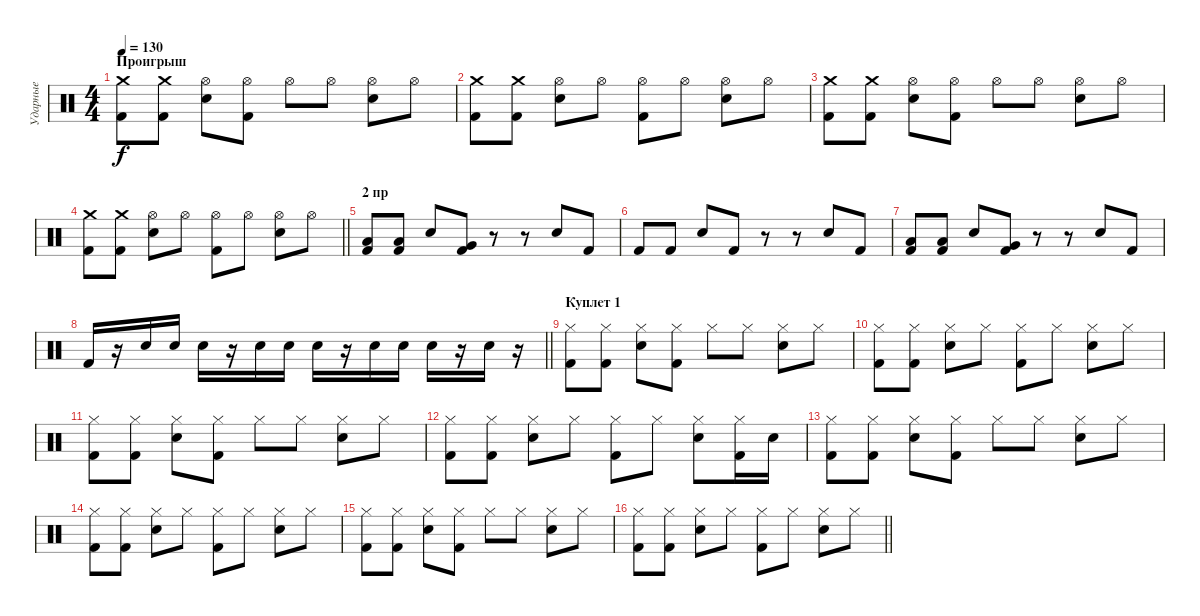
\track ("Ударные" "Ударные") {instrument percussion}
\staff {score}
\articulation defaults
\ts (4 4)
\section ("" "Проигрыш")
\tempo 130
\clef neutral
\ks c
("Crash medium (hit)" "Kick (hit) 2").8{dy f} ("Crash medium (hit)" "Kick (hit) 2").8 ("Hi-Hat (open)" "Snare (hit) 2").8 ("Hi-Hat (open)" "Kick (hit) 2").8 "Hi-Hat (open)".8 "Hi-Hat (open)".8 ("Hi-Hat (open)" "Snare (hit) 2").8 "Hi-Hat (open)".8 |
("Crash medium (hit)" "Kick (hit) 2").8 ("Crash medium (hit)" "Kick (hit) 2").8 ("Hi-Hat (open)" "Snare (hit) 2").8 "Hi-Hat (open)".8 ("Hi-Hat (open)" "Kick (hit) 2").8 "Hi-Hat (open)".8 ("Hi-Hat (open)" "Snare (hit) 2").8 "Hi-Hat (open)".8 |
("Crash medium (hit)" "Kick (hit) 2").8 ("Crash medium (hit)" "Kick (hit) 2").8 ("Hi-Hat (open)" "Snare (hit) 2").8 ("Hi-Hat (open)" "Kick (hit) 2").8 "Hi-Hat (open)".8 "Hi-Hat (open)".8 ("Hi-Hat (open)" "Snare (hit) 2").8 "Hi-Hat (open)".8 |
\barLineRight lightlight
("Crash medium (hit)" "Kick (hit) 2").8 ("Crash medium (hit)" "Kick (hit) 2").8 ("Hi-Hat (open)" "Snare (hit) 2").8 "Hi-Hat (open)".8 ("Hi-Hat (open)" "Kick (hit) 2").8 "Hi-Hat (open)".8 ("Hi-Hat (open)" "Snare (hit) 2").8 "Hi-Hat (open)".8 |
\section ("" "2 пр")
("Low Floor Tom (hit)" "Kick (hit) 2").8 ("Low Floor Tom (hit)" "Kick (hit) 2").8 "Snare (hit) 2".8 ("Very Low Tom (hit)" "Kick (hit) 2").8 r.8 r.8 "Snare (hit) 2".8 "Kick (hit) 2".8 |
"Kick (hit) 2".8 "Kick (hit) 2".8 "Snare (hit) 2".8 "Kick (hit) 2".8 r.8 r.8 "Snare (hit) 2".8 "Kick (hit) 2".8 |
("Low Floor Tom (hit)" "Kick (hit) 2").8 ("Low Floor Tom (hit)" "Kick (hit) 2").8 "Snare (hit) 2".8 ("Very Low Tom (hit)" "Kick (hit) 2").8 r.8 r.8 "Snare (hit) 2".8 "Kick (hit) 2".8 |
\barLineRight lightlight "Kick (hit) 2".16
r.16 "Snare (hit) 2".16 "Snare (hit) 2".16 "Snare (hit) 2".16 r.16 "Snare (hit) 2".16 "Snare (hit) 2".16 "Snare (hit) 2".16 r.16 "Snare (hit) 2".16 "Snare (hit) 2".16 "Snare (hit) 2".16 r.16 "Snare (hit) 2".16 r.16 |
\section ("" "Куплет 1")
("Hi-Hat (closed)" "Kick (hit) 2").8 ("Hi-Hat (closed)" "Kick (hit) 2").8 ("Hi-Hat (closed)" "Snare (hit) 2").8 ("Hi-Hat (closed)" "Kick (hit) 2").8 "Hi-Hat (closed)".8 "Hi-Hat (closed)".8 ("Hi-Hat (closed)" "Snare (hit) 2").8 "Hi-Hat (closed)".8 |
("Hi-Hat (closed)" "Kick (hit) 2").8 ("Hi-Hat (closed)" "Kick (hit) 2").8 ("Hi-Hat (closed)" "Snare (hit) 2").8 "Hi-Hat (closed)".8 ("Hi-Hat (closed)" "Kick (hit) 2").8 "Hi-Hat (closed)".8 ("Hi-Hat (closed)" "Snare (hit) 2").8 "Hi-Hat (closed)".8 |
("Hi-Hat (closed)" "Kick (hit) 2").8 ("Hi-Hat (closed)" "Kick (hit) 2").8 ("Hi-Hat (closed)" "Snare (hit) 2").8 ("Hi-Hat (closed)" "Kick (hit) 2").8 "Hi-Hat (closed)".8 "Hi-Hat (closed)".8 ("Hi-Hat (closed)" "Snare (hit) 2").8 "Hi-Hat (closed)".8 |
("Hi-Hat (closed)" "Kick (hit) 2").8 ("Hi-Hat (closed)" "Kick (hit) 2").8 ("Hi-Hat (closed)" "Snare (hit) 2").8 "Hi-Hat (closed)".8 ("Hi-Hat (closed)" "Kick (hit) 2").8 "Hi-Hat (closed)".8 ("Hi-Hat (closed)" "Snare (hit) 2").8 ("Hi-Hat (closed)" "Kick (hit) 2").16 "Snare (hit) 2".16 |
("Hi-Hat (closed)" "Kick (hit) 2").8 ("Hi-Hat (closed)" "Kick (hit) 2").8 ("Hi-Hat (closed)" "Snare (hit) 2").8 ("Hi-Hat (closed)" "Kick (hit) 2").8 "Hi-Hat (closed)".8 "Hi-Hat (closed)".8 ("Hi-Hat (closed)" "Snare (hit) 2").8 "Hi-Hat (closed)".8 |
("Hi-Hat (closed)" "Kick (hit) 2").8 ("Hi-Hat (closed)" "Kick (hit) 2").8 ("Hi-Hat (closed)" "Snare (hit) 2").8 "Hi-Hat (closed)".8 ("Hi-Hat (closed)" "Kick (hit) 2").8 "Hi-Hat (closed)".8 ("Hi-Hat (closed)" "Snare (hit) 2").8 "Hi-Hat (closed)".8 |
("Hi-Hat (closed)" "Kick (hit) 2").8 ("Hi-Hat (closed)" "Kick (hit) 2").8 ("Hi-Hat (closed)" "Snare (hit) 2").8 ("Hi-Hat (closed)" "Kick (hit) 2").8 "Hi-Hat (closed)".8 "Hi-Hat (closed)".8 ("Hi-Hat (closed)" "Snare (hit) 2").8 "Hi-Hat (closed)".8 |
\barLineRight lightlight
("Hi-Hat (closed)" "Kick (hit) 2").8 ("Hi-Hat (closed)" "Kick (hit) 2").8 ("Hi-Hat (closed)" "Snare (hit) 2").8 "Hi-Hat (closed)".8 ("Hi-Hat (closed)" "Kick (hit) 2").8 "Hi-Hat (closed)".8 ("Hi-Hat (closed)" "Snare (hit) 2").8 "Hi-Hat (closed)".8
